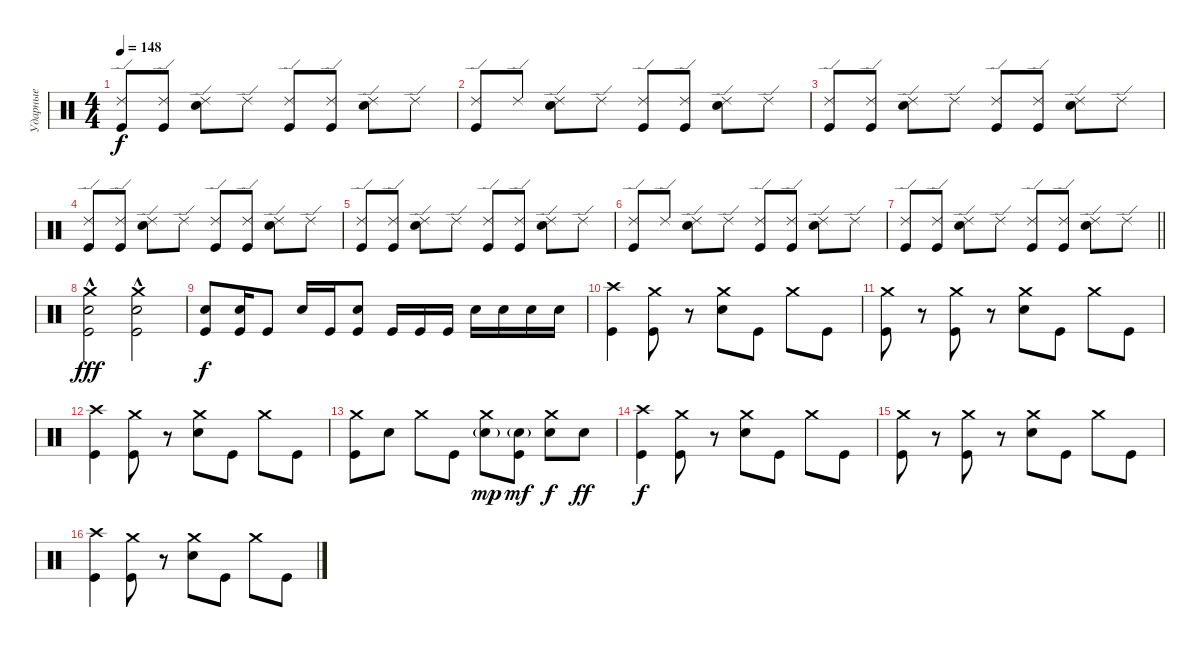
\track ("Ударные" "Ударные") {instrument percussion}
\staff {score}
\articulation defaults
\ts (4 4)
\tempo 148
\clef neutral
\ks c
("Ride (edge) 2" "Kick (hit)").8{dy f} ("Ride (edge) 2" "Kick (hit)").8 ("Ride (edge) 2" "Electric Snare (hit)").8 "Ride (edge) 2".8 ("Ride (edge) 2" "Kick (hit)").8 ("Ride (edge) 2" "Kick (hit)").8 ("Ride (edge) 2" "Electric Snare (hit)").8 "Ride (edge) 2".8 |
("Ride (edge) 2" "Kick (hit)").8 "Ride (edge) 2".8 ("Ride (edge) 2" "Electric Snare (hit)").8 "Ride (edge) 2".8 ("Ride (edge) 2" "Kick (hit)").8 ("Ride (edge) 2" "Kick (hit)").8 ("Ride (edge) 2" "Electric Snare (hit)").8 "Ride (edge) 2".8 |
("Ride (edge) 2" "Kick (hit)").8 ("Ride (edge) 2" "Kick (hit)").8 ("Ride (edge) 2" "Electric Snare (hit)").8 "Ride (edge) 2".8 ("Ride (edge) 2" "Kick (hit)").8 ("Ride (edge) 2" "Kick (hit)").8 ("Ride (edge) 2" "Electric Snare (hit)").8 "Ride (edge) 2".8 |
("Ride (edge) 2" "Kick (hit)").8 ("Ride (edge) 2" "Kick (hit)").8 ("Ride (edge) 2" "Electric Snare (hit)").8 "Ride (edge) 2".8 ("Ride (edge) 2" "Kick (hit)").8 ("Ride (edge) 2" "Kick (hit)").8 ("Ride (edge) 2" "Electric Snare (hit)").8 "Ride (edge) 2".8 |
("Ride (edge) 2" "Kick (hit)").8 ("Ride (edge) 2" "Kick (hit)").8 ("Ride (edge) 2" "Electric Snare (hit)").8 "Ride (edge) 2".8 ("Ride (edge) 2" "Kick (hit)").8 ("Ride (edge) 2" "Kick (hit)").8 ("Ride (edge) 2" "Electric Snare (hit)").8 "Ride (edge) 2".8 |
("Ride (edge) 2" "Kick (hit)").8 "Ride (edge) 2".8 ("Ride (edge) 2" "Electric Snare (hit)").8 "Ride (edge) 2".8 ("Ride (edge) 2" "Kick (hit)").8 ("Ride (edge) 2" "Kick (hit)").8 ("Ride (edge) 2" "Electric Snare (hit)").8 "Ride (edge) 2".8 |
\barLineRight lightlight
("Ride (edge) 2" "Kick (hit)").8 ("Ride (edge) 2" "Kick (hit)").8 ("Ride (edge) 2" "Electric Snare (hit)").8 "Ride (edge) 2".8 ("Ride (edge) 2" "Kick (hit)").8 ("Ride (edge) 2" "Kick (hit)").8 ("Ride (edge) 2" "Electric Snare (hit)").8 "Ride (edge) 2".8 |
\section ("" "")
("Crash medium (hit)"{hac} "Electric Snare (hit)" "Kick (hit)").2{dy fff} ("Crash medium (hit)"{hac} "Electric Snare (hit)" "Kick (hit)").2 |
("Electric Snare (hit)" "Kick (hit)").8{dy f} ("Electric Snare (hit)" "Kick (hit)").16 "Kick (hit)".8 "Electric Snare (hit)".16 "Kick (hit)".16 ("Electric Snare (hit)" "Kick (hit)").8 "Kick (hit)".16 "Kick (hit)".16 "Kick (hit)".16 "Electric Snare (hit)".16 "Electric Snare (hit)".16 "Electric Snare (hit)".16 "Electric Snare (hit)".16 |
("Crash high (hit)" "Kick (hit)").4 ("Crash medium (hit)" "Kick (hit)").8 r.8 ("Crash medium (hit)" "Electric Snare (hit)").8 "Kick (hit)".8 "Crash medium (hit)".8 "Kick (hit)".8 |
("Crash medium (hit)" "Kick (hit)").8 r.8 ("Crash medium (hit)" "Kick (hit)").8 r.8 ("Crash medium (hit)" "Electric Snare (hit)").8 "Kick (hit)".8 "Crash medium (hit)".8 "Kick (hit)".8 |
("Crash high (hit)" "Kick (hit)").4 ("Crash medium (hit)" "Kick (hit)").8 r.8 ("Crash medium (hit)" "Electric Snare (hit)").8 "Kick (hit)".8 "Crash medium (hit)".8 "Kick (hit)".8 |
("Crash medium (hit)" "Kick (hit)").8 "Electric Snare (hit)".8 "Crash medium (hit)".8 "Kick (hit)".8 ("Crash medium (hit)" "Electric Snare (hit)"{g}).8{dy mp} ("Electric Snare (hit)"{g} "Kick (hit)").8{dy mf} ("Crash medium (hit)" "Electric Snare (hit)").8{dy f} "Electric Snare (hit)".8{dy ff} |
("Crash high (hit)" "Kick (hit)").4{dy f} ("Crash medium (hit)" "Kick (hit)").8 r.8 ("Crash medium (hit)" "Electric Snare (hit)").8 "Kick (hit)".8 "Crash medium (hit)".8 "Kick (hit)".8 |
("Crash medium (hit)" "Kick (hit)").8 r.8 ("Crash medium (hit)" "Kick (hit)").8 r.8 ("Crash medium (hit)" "Electric Snare (hit)").8 "Kick (hit)".8 "Crash medium (hit)".8 "Kick (hit)".8 |
("Crash high (hit)" "Kick (hit)").4 ("Crash medium (hit)" "Kick (hit)").8 r.8 ("Crash medium (hit)" "Electric Snare (hit)").8 "Kick (hit)".8 "Crash medium (hit)".8 "Kick (hit)".8
